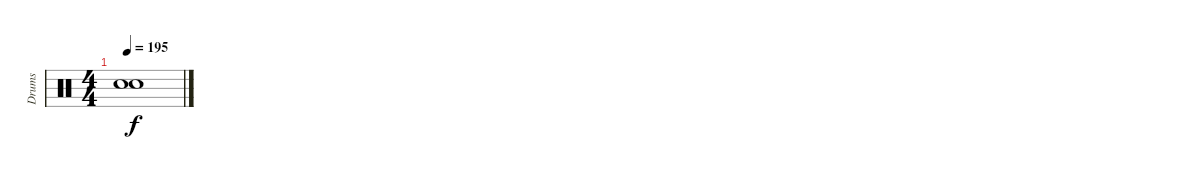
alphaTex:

\track ("Drums" "Drums") {instrument percussion}
\staff {score}
\articulation defaults
\ts (4 4)
\tempo 195
\clef neutral
\ks c
("Snare (hit)"{t} "Snare (hit)"{t}).1{dy f}
